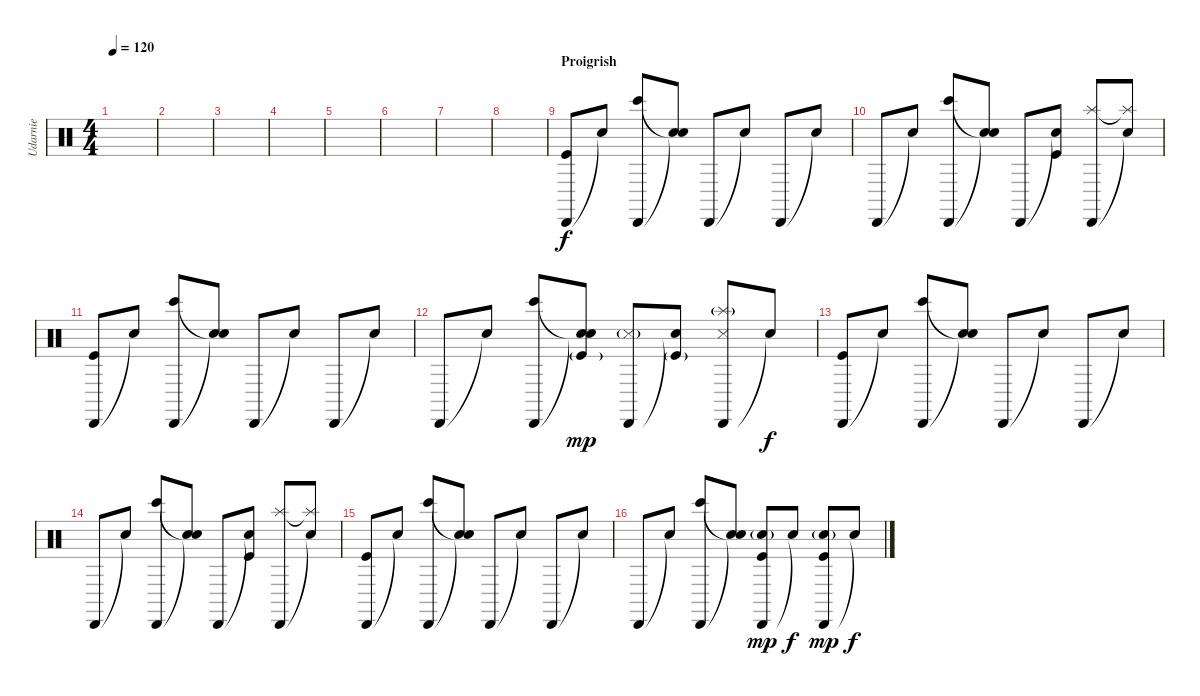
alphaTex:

\track ("Udarnie" "Udarnie") {instrument percussion}
\staff {score}
\articulation defaults
\ts (4 4)
\tempo 120
\clef neutral
\ks c
|
|
|
|
|
|
|
|
\section ("" "Proigrish")
("Cabasa (hit)" "Kick (hit)").8 "Snare (hit)"{t}.8 ("Cabasa (hit)" "Bongo High (hit)").8 ("Snare (hit)"{t} "Snare (hit)"{t}).8 "Cabasa (hit)".8 "Snare (hit)"{t}.8 "Cabasa (hit)".8 "Snare (hit)"{t}.8 |
"Cabasa (hit)".8 "Snare (hit)"{t}.8 ("Cabasa (hit)" "Bongo High (hit)").8 ("Snare (hit)"{t} "Snare (hit)"{t}).8 "Cabasa (hit)".8 ("Snare (hit)"{t} "Kick (hit)").8 ("Cabasa (hit)" "Splash (hit)").8 ("Snare (hit)"{t} "Splash (hit)"{t}).8 |
("Cabasa (hit)" "Kick (hit)").8 "Snare (hit)"{t}.8 ("Cabasa (hit)" "Bongo High (hit)").8 ("Snare (hit)"{t} "Snare (hit)"{t}).8 "Cabasa (hit)".8 "Snare (hit)"{t}.8 "Cabasa (hit)".8 "Snare (hit)"{t}.8 |
"Cabasa (hit)".8 "Snare (hit)"{t}.8 ("Cabasa (hit)" "Bongo High (hit)").8 ("Snare (hit)"{t} "Snare (hit)"{t} "Kick (hit)"{g}).8{dy mp} ("Cabasa (hit)" "Snare (side stick) 3"{g}).8 ("Snare (hit)"{t} "Kick (hit)"{g}).8 ("Cabasa (hit)" "Snare (side stick) 3" "Splash (hit)"{g}).8 "Snare (hit)"{t}.8{dy f} |
("Cabasa (hit)" "Kick (hit)").8 "Snare (hit)"{t}.8 ("Cabasa (hit)" "Bongo High (hit)").8 ("Snare (hit)"{t} "Snare (hit)"{t}).8 "Cabasa (hit)".8 "Snare (hit)"{t}.8 "Cabasa (hit)".8 "Snare (hit)"{t}.8 |
"Cabasa (hit)".8 "Snare (hit)"{t}.8 ("Cabasa (hit)" "Bongo High (hit)").8 ("Snare (hit)"{t} "Snare (hit)"{t}).8 "Cabasa (hit)".8 ("Snare (hit)"{t} "Kick (hit)").8 ("Cabasa (hit)" "Splash (hit)").8 ("Snare (hit)"{t} "Splash (hit)"{t}).8 |
("Cabasa (hit)" "Kick (hit)").8 "Snare (hit)"{t}.8 ("Cabasa (hit)" "Bongo High (hit)").8 ("Snare (hit)"{t} "Snare (hit)"{t}).8 "Cabasa (hit)".8 "Snare (hit)"{t}.8 "Cabasa (hit)".8 "Snare (hit)"{t}.8 |
"Cabasa (hit)".8 "Snare (hit)"{t}.8 ("Cabasa (hit)" "Bongo High (hit)").8 ("Snare (hit)"{t} "Snare (hit)"{t}).8 ("Cabasa (hit)" "Electric Snare (hit)"{g} "Kick (hit)").8{dy mp} "Snare (hit)"{t}.8{dy f} ("Cabasa (hit)" "Electric Snare (hit)"{g} "Kick (hit)").8{dy mp} "Snare (hit)"{t}.8{dy f}
